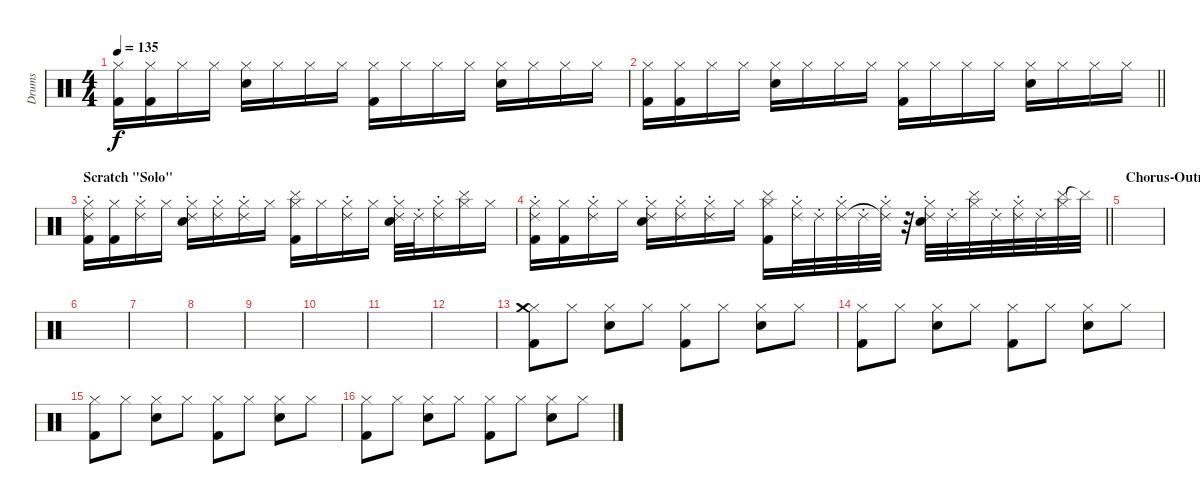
\track ("Drums" "Drums") {instrument percussion}
\staff {score}
\articulation defaults
\ts (4 4)
\tempo 135
\clef neutral
\ks c
("Hi-Hat (closed)" "Kick (hit) 2").16{dy f} ("Hi-Hat (closed)" "Kick (hit) 2").16 "Hi-Hat (closed)".16 "Hi-Hat (closed)".16 ("Hi-Hat (closed)" "Snare (hit) 2").16 "Hi-Hat (closed)".16 "Hi-Hat (closed)".16 "Hi-Hat (closed)".16 ("Hi-Hat (closed)" "Kick (hit) 2").16 "Hi-Hat (closed)".16 "Hi-Hat (closed)".16 "Hi-Hat (closed)".16 ("Hi-Hat (closed)" "Snare (hit) 2").16 "Hi-Hat (closed)".16 "Hi-Hat (closed)".16 "Hi-Hat (closed)".16 |
\barLineRight lightlight
("Hi-Hat (closed)" "Kick (hit) 2").16 ("Hi-Hat (closed)" "Kick (hit) 2").16 "Hi-Hat (closed)".16 "Hi-Hat (closed)".16 ("Hi-Hat (closed)" "Snare (hit) 2").16 "Hi-Hat (closed)".16 "Hi-Hat (closed)".16 "Hi-Hat (closed)".16 ("Hi-Hat (closed)" "Kick (hit) 2").16 "Hi-Hat (closed)".16 "Hi-Hat (closed)".16 "Hi-Hat (closed)".16 ("Hi-Hat (closed)" "Snare (hit) 2").16 "Hi-Hat (closed)".16 "Hi-Hat (closed)".16 "Hi-Hat (closed)".16 |
\section ("" "Scratch \"Solo\"")
("Hi-Hat (closed)" "Kick (hit) 2" "Ride (choke) 2").16 ("Hi-Hat (closed)" "Kick (hit) 2").16 ("Hi-Hat (closed)" "Ride (choke) 2").16 "Hi-Hat (closed)".16 ("Hi-Hat (closed)" "Snare (hit) 2" "Ride (choke) 2").16 ("Hi-Hat (closed)" "Ride (choke) 2").16 ("Hi-Hat (closed)" "Ride (choke) 2").16 "Hi-Hat (closed)".16 ("Hi-Hat (closed)" "Kick (hit) 2" "Cymbal (hit)").16 "Hi-Hat (closed)".16 ("Hi-Hat (closed)" "Ride (choke) 2").16 "Hi-Hat (closed)".16 ("Hi-Hat (closed)" "Snare (hit) 2" "Ride (choke) 2").32 "Ride (choke) 2".32 ("Hi-Hat (closed)" "Ride (choke) 2").16 ("Hi-Hat (closed)" "Cymbal (hit)").16 "Hi-Hat (closed)".16 |
\barLineRight lightlight
("Hi-Hat (closed)" "Kick (hit) 2" "Ride (choke) 2").16 ("Hi-Hat (closed)" "Kick (hit) 2").16 ("Hi-Hat (closed)" "Ride (choke) 2").16 "Hi-Hat (closed)".16 ("Hi-Hat (closed)" "Snare (hit) 2" "Ride (choke) 2").16 ("Hi-Hat (closed)" "Ride (choke) 2").16 ("Hi-Hat (closed)" "Ride (choke) 2").16 "Hi-Hat (closed)".16 ("Hi-Hat (closed)" "Kick (hit) 2" "Cymbal (hit)").16 ("Hi-Hat (closed)" "Ride (choke) 2").32 "Ride (choke) 2".32 ("Hi-Hat (closed)" "Ride (choke) 2").32 "Ride (choke) 2".32 ("Hi-Hat (closed)" "Ride (choke) 2"{t}).32 r.32 ("Hi-Hat (closed)" "Snare (hit) 2" "Ride (choke) 2").32 "Ride (choke) 2".32 ("Hi-Hat (closed)" "Cymbal (hit)").32 "Ride (choke) 2".32 ("Hi-Hat (closed)" "Ride (choke) 2").32 "Ride (choke) 2".32 ("Hi-Hat (closed)" "Cymbal (hit)").32 "Cymbal (hit)"{t}.32 |
\section ("" "Chorus-Outro")
|
|
|
|
|
|
|
|
("Hi-Hat (closed)" "Kick (hit) 2" "Crash medium (hit)").8 "Hi-Hat (closed)".8 ("Hi-Hat (closed)" "Snare (hit) 2").8 "Hi-Hat (closed)".8 ("Hi-Hat (closed)" "Kick (hit) 2").8 "Hi-Hat (closed)".8 ("Hi-Hat (closed)" "Snare (hit) 2").8 "Hi-Hat (closed)".8 |
("Hi-Hat (closed)" "Kick (hit) 2").8 "Hi-Hat (closed)".8 ("Hi-Hat (closed)" "Snare (hit) 2").8 "Hi-Hat (closed)".8 ("Hi-Hat (closed)" "Kick (hit) 2").8 "Hi-Hat (closed)".8 ("Hi-Hat (closed)" "Snare (hit) 2").8 "Hi-Hat (closed)".8 |
("Hi-Hat (closed)" "Kick (hit) 2").8 "Hi-Hat (closed)".8 ("Hi-Hat (closed)" "Snare (hit) 2").8 "Hi-Hat (closed)".8 ("Hi-Hat (closed)" "Kick (hit) 2").8 "Hi-Hat (closed)".8 ("Hi-Hat (closed)" "Snare (hit) 2").8 "Hi-Hat (closed)".8 |
("Hi-Hat (closed)" "Kick (hit) 2").8 "Hi-Hat (closed)".8 ("Hi-Hat (closed)" "Snare (hit) 2").8 "Hi-Hat (closed)".8 ("Hi-Hat (closed)" "Kick (hit) 2").8 "Hi-Hat (closed)".8 ("Hi-Hat (closed)" "Snare (hit) 2").8 "Hi-Hat (closed)".8
